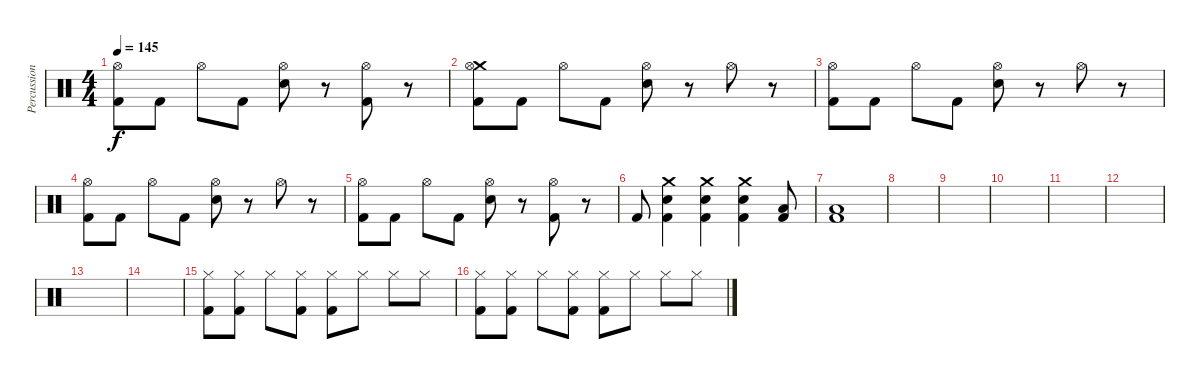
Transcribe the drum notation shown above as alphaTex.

\track ("Percussioni" "Percussion") {instrument percussion}
\staff {score}
\articulation defaults
\ts (4 4)
\tempo 145
\clef neutral
\ks c
("Hi-Hat (open)" "Kick (hit) 2").8{dy f} "Kick (hit) 2".8 "Hi-Hat (open)".8 "Kick (hit) 2".8 ("Hi-Hat (open)" "Snare (hit) 2").8 r.8 ("Hi-Hat (open)" "Kick (hit) 2").8 r.8 |
("Crash medium (hit)" "Hi-Hat (open)" "Kick (hit) 2").8 "Kick (hit) 2".8 "Hi-Hat (open)".8 "Kick (hit) 2".8 ("Hi-Hat (open)" "Snare (hit) 2").8 r.8 "Hi-Hat (open)".8 r.8 |
("Hi-Hat (open)" "Kick (hit) 2").8 "Kick (hit) 2".8 "Hi-Hat (open)".8 "Kick (hit) 2".8 ("Hi-Hat (open)" "Snare (hit) 2").8 r.8 "Hi-Hat (open)".8 r.8 |
("Hi-Hat (open)" "Kick (hit) 2").8 "Kick (hit) 2".8 "Hi-Hat (open)".8 "Kick (hit) 2".8 ("Hi-Hat (open)" "Snare (hit) 2").8 r.8 "Hi-Hat (open)".8 r.8 |
("Hi-Hat (open)" "Kick (hit) 2").8 "Kick (hit) 2".8 "Hi-Hat (open)".8 "Kick (hit) 2".8 ("Hi-Hat (open)" "Snare (hit) 2").8 r.8 ("Hi-Hat (open)" "Kick (hit) 2").8 r.8 |
"Kick (hit) 2".8 ("Crash medium (hit)" "Snare (hit) 2" "Kick (hit) 2").4 ("Crash medium (hit)" "Snare (hit) 2" "Kick (hit) 2").4 ("Crash medium (hit)" "Snare (hit) 2" "Kick (hit) 2").4 ("Low Floor Tom (hit)" "Kick (hit) 2").8 |
("Low Floor Tom (hit)" "Kick (hit) 2").1 |
|
|
|
|
|
|
|
("Hi-Hat (closed)" "Kick (hit) 2").8 ("Hi-Hat (closed)" "Kick (hit) 2").8 "Hi-Hat (closed)".8 ("Hi-Hat (closed)" "Kick (hit) 2").8 ("Hi-Hat (closed)" "Kick (hit) 2").8 "Hi-Hat (closed)".8 "Hi-Hat (closed)".8 "Hi-Hat (closed)".8 |
("Hi-Hat (closed)" "Kick (hit) 2").8 ("Hi-Hat (closed)" "Kick (hit) 2").8 "Hi-Hat (closed)".8 ("Hi-Hat (closed)" "Kick (hit) 2").8 ("Hi-Hat (closed)" "Kick (hit) 2").8 "Hi-Hat (closed)".8 "Hi-Hat (closed)".8 "Hi-Hat (closed)".8
